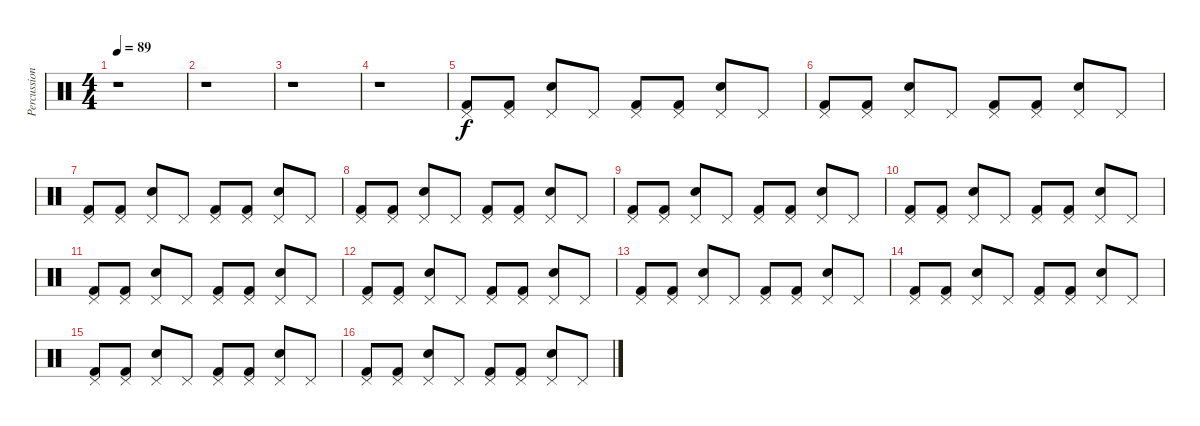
\track ("Percussions" "Percussion") {instrument percussion}
\staff {score}
\articulation defaults
\ts (4 4)
\tempo 89
\clef neutral
\ks c
r.1{dy f} |
r.1 |
r.1 |
r.1 |
("Kick (hit) 2" "Pedal Hi-Hat (hit)").8 ("Kick (hit) 2" "Pedal Hi-Hat (hit)").8 ("Snare (hit) 2" "Pedal Hi-Hat (hit)").8 "Pedal Hi-Hat (hit)".8 ("Kick (hit) 2" "Pedal Hi-Hat (hit)").8 ("Kick (hit) 2" "Pedal Hi-Hat (hit)").8 ("Snare (hit) 2" "Pedal Hi-Hat (hit)").8 "Pedal Hi-Hat (hit)".8 |
("Kick (hit) 2" "Pedal Hi-Hat (hit)").8 ("Kick (hit) 2" "Pedal Hi-Hat (hit)").8 ("Snare (hit) 2" "Pedal Hi-Hat (hit)").8 "Pedal Hi-Hat (hit)".8 ("Kick (hit) 2" "Pedal Hi-Hat (hit)").8 ("Kick (hit) 2" "Pedal Hi-Hat (hit)").8 ("Snare (hit) 2" "Pedal Hi-Hat (hit)").8 "Pedal Hi-Hat (hit)".8 |
("Kick (hit) 2" "Pedal Hi-Hat (hit)").8 ("Kick (hit) 2" "Pedal Hi-Hat (hit)").8 ("Snare (hit) 2" "Pedal Hi-Hat (hit)").8 "Pedal Hi-Hat (hit)".8 ("Kick (hit) 2" "Pedal Hi-Hat (hit)").8 ("Kick (hit) 2" "Pedal Hi-Hat (hit)").8 ("Snare (hit) 2" "Pedal Hi-Hat (hit)").8 "Pedal Hi-Hat (hit)".8 |
("Kick (hit) 2" "Pedal Hi-Hat (hit)").8 ("Kick (hit) 2" "Pedal Hi-Hat (hit)").8 ("Snare (hit) 2" "Pedal Hi-Hat (hit)").8 "Pedal Hi-Hat (hit)".8 ("Kick (hit) 2" "Pedal Hi-Hat (hit)").8 ("Kick (hit) 2" "Pedal Hi-Hat (hit)").8 ("Snare (hit) 2" "Pedal Hi-Hat (hit)").8 "Pedal Hi-Hat (hit)".8 |
("Kick (hit) 2" "Pedal Hi-Hat (hit)").8 ("Kick (hit) 2" "Pedal Hi-Hat (hit)").8 ("Snare (hit) 2" "Pedal Hi-Hat (hit)").8 "Pedal Hi-Hat (hit)".8 ("Kick (hit) 2" "Pedal Hi-Hat (hit)").8 ("Kick (hit) 2" "Pedal Hi-Hat (hit)").8 ("Snare (hit) 2" "Pedal Hi-Hat (hit)").8 "Pedal Hi-Hat (hit)".8 |
("Kick (hit) 2" "Pedal Hi-Hat (hit)").8 ("Kick (hit) 2" "Pedal Hi-Hat (hit)").8 ("Snare (hit) 2" "Pedal Hi-Hat (hit)").8 "Pedal Hi-Hat (hit)".8 ("Kick (hit) 2" "Pedal Hi-Hat (hit)").8 ("Kick (hit) 2" "Pedal Hi-Hat (hit)").8 ("Snare (hit) 2" "Pedal Hi-Hat (hit)").8 "Pedal Hi-Hat (hit)".8 |
("Kick (hit) 2" "Pedal Hi-Hat (hit)").8 ("Kick (hit) 2" "Pedal Hi-Hat (hit)").8 ("Snare (hit) 2" "Pedal Hi-Hat (hit)").8 "Pedal Hi-Hat (hit)".8 ("Kick (hit) 2" "Pedal Hi-Hat (hit)").8 ("Kick (hit) 2" "Pedal Hi-Hat (hit)").8 ("Snare (hit) 2" "Pedal Hi-Hat (hit)").8 "Pedal Hi-Hat (hit)".8 |
("Kick (hit) 2" "Pedal Hi-Hat (hit)").8 ("Kick (hit) 2" "Pedal Hi-Hat (hit)").8 ("Snare (hit) 2" "Pedal Hi-Hat (hit)").8 "Pedal Hi-Hat (hit)".8 ("Kick (hit) 2" "Pedal Hi-Hat (hit)").8 ("Kick (hit) 2" "Pedal Hi-Hat (hit)").8 ("Snare (hit) 2" "Pedal Hi-Hat (hit)").8 "Pedal Hi-Hat (hit)".8 |
("Kick (hit) 2" "Pedal Hi-Hat (hit)").8 ("Kick (hit) 2" "Pedal Hi-Hat (hit)").8 ("Snare (hit) 2" "Pedal Hi-Hat (hit)").8 "Pedal Hi-Hat (hit)".8 ("Kick (hit) 2" "Pedal Hi-Hat (hit)").8 ("Kick (hit) 2" "Pedal Hi-Hat (hit)").8 ("Snare (hit) 2" "Pedal Hi-Hat (hit)").8 "Pedal Hi-Hat (hit)".8 |
("Kick (hit) 2" "Pedal Hi-Hat (hit)").8 ("Kick (hit) 2" "Pedal Hi-Hat (hit)").8 ("Snare (hit) 2" "Pedal Hi-Hat (hit)").8 "Pedal Hi-Hat (hit)".8 ("Kick (hit) 2" "Pedal Hi-Hat (hit)").8 ("Kick (hit) 2" "Pedal Hi-Hat (hit)").8 ("Snare (hit) 2" "Pedal Hi-Hat (hit)").8 "Pedal Hi-Hat (hit)".8 |
("Kick (hit) 2" "Pedal Hi-Hat (hit)").8 ("Kick (hit) 2" "Pedal Hi-Hat (hit)").8 ("Snare (hit) 2" "Pedal Hi-Hat (hit)").8 "Pedal Hi-Hat (hit)".8 ("Kick (hit) 2" "Pedal Hi-Hat (hit)").8 ("Kick (hit) 2" "Pedal Hi-Hat (hit)").8 ("Snare (hit) 2" "Pedal Hi-Hat (hit)").8 "Pedal Hi-Hat (hit)".8 |
("Kick (hit) 2" "Pedal Hi-Hat (hit)").8 ("Kick (hit) 2" "Pedal Hi-Hat (hit)").8 ("Snare (hit) 2" "Pedal Hi-Hat (hit)").8 "Pedal Hi-Hat (hit)".8 ("Kick (hit) 2" "Pedal Hi-Hat (hit)").8 ("Kick (hit) 2" "Pedal Hi-Hat (hit)").8 ("Snare (hit) 2" "Pedal Hi-Hat (hit)").8 "Pedal Hi-Hat (hit)".8
